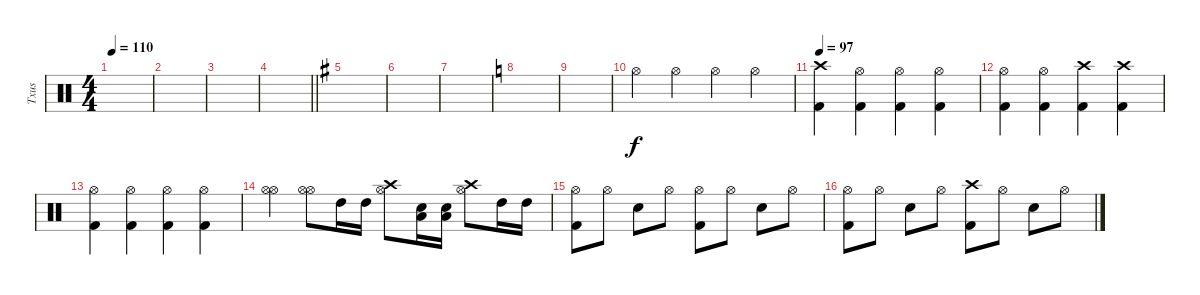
\track ("Txus" "Txus") {instrument percussion}
\staff {score}
\articulation defaults
\ts (4 4)
\tempo 110
\clef neutral
\ks c
|
|
|
\barLineRight lightlight
|
\ks g
|
|
|
\ks c
|
|
"Hi-Hat (open)".4 "Hi-Hat (open)".4 "Hi-Hat (open)".4 "Hi-Hat (open)".4 |
\tempo 97
("Crash high (hit)" "Kick (hit) 2").4 ("Hi-Hat (open)" "Kick (hit) 2").4 ("Hi-Hat (open)" "Kick (hit) 2").4 ("Hi-Hat (open)" "Kick (hit) 2").4 |
("Hi-Hat (open)" "Kick (hit) 2").4 ("Hi-Hat (open)" "Kick (hit) 2").4 ("Crash high (hit)" "Kick (hit) 2").4 ("Crash high (hit)" "Kick (hit) 2").4 |
("Hi-Hat (open)" "Kick (hit) 2").4 ("Hi-Hat (open)" "Kick (hit) 2").4 ("Hi-Hat (open)" "Kick (hit) 2").4 ("Hi-Hat (open)" "Kick (hit) 2").4 |
("Hi-Hat (open)" "Hi-Hat (open)").4 ("Hi-Hat (open)" "Hi-Hat (open)").8 "High Tom (hit)".16 "High Tom (hit)".16 ("Crash high (hit)" "Hi-Hat (open)").8 ("Low Tom (hit)" "Snare (hit) 2").16 ("Low Tom (hit)" "Snare (hit) 2").16 ("Crash high (hit)" "Hi-Hat (open)").8 "High Tom (hit)".16 "High Tom (hit)".16 |
("Hi-Hat (open)" "Kick (hit) 2").8 "Hi-Hat (open)".8 "Snare (hit) 2".8 "Hi-Hat (open)".8 ("Hi-Hat (open)" "Kick (hit) 2").8 "Hi-Hat (open)".8 "Snare (hit) 2".8 "Hi-Hat (open)".8 |
("Hi-Hat (open)" "Kick (hit) 2").8 "Hi-Hat (open)".8 "Snare (hit) 2".8 "Hi-Hat (open)".8 ("Crash high (hit)" "Kick (hit) 2").8 "Hi-Hat (open)".8 "Snare (hit) 2".8 "Hi-Hat (open)".8
